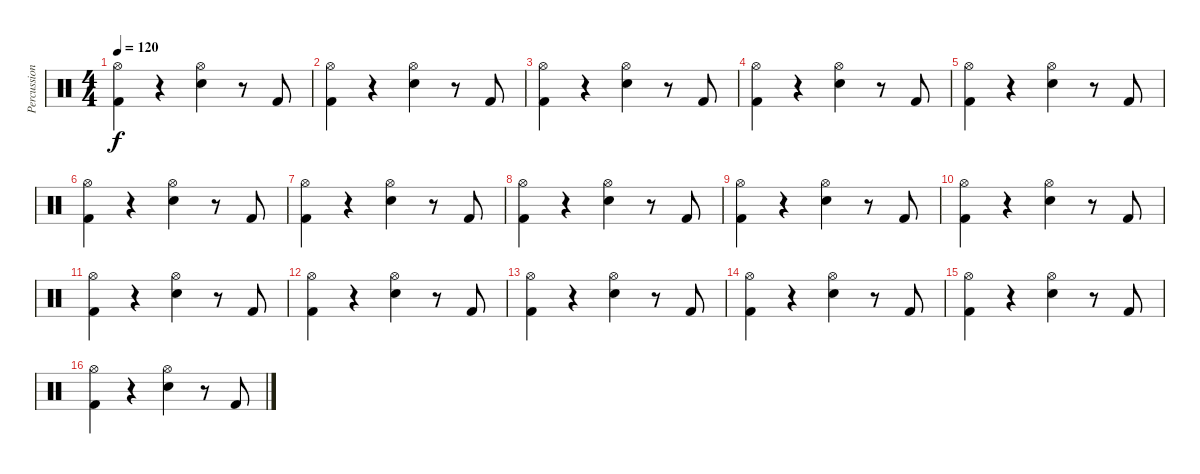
\track ("Percussions" "Percussion") {instrument percussion}
\staff {score}
\articulation defaults
\ts (4 4)
\tempo 120
\clef neutral
\ks c
("Hi-Hat (open)" "Kick (hit) 2").4{dy f} r.4 ("Hi-Hat (open)" "Snare (hit) 2").4 r.8 "Kick (hit) 2".8 |
("Hi-Hat (open)" "Kick (hit) 2").4 r.4 ("Hi-Hat (open)" "Snare (hit) 2").4 r.8 "Kick (hit) 2".8 |
("Hi-Hat (open)" "Kick (hit) 2").4 r.4 ("Hi-Hat (open)" "Snare (hit) 2").4 r.8 "Kick (hit) 2".8 |
("Hi-Hat (open)" "Kick (hit) 2").4 r.4 ("Hi-Hat (open)" "Snare (hit) 2").4 r.8 "Kick (hit) 2".8 |
("Hi-Hat (open)" "Kick (hit) 2").4 r.4 ("Hi-Hat (open)" "Snare (hit) 2").4 r.8 "Kick (hit) 2".8 |
("Hi-Hat (open)" "Kick (hit) 2").4 r.4 ("Hi-Hat (open)" "Snare (hit) 2").4 r.8 "Kick (hit) 2".8 |
("Hi-Hat (open)" "Kick (hit) 2").4 r.4 ("Hi-Hat (open)" "Snare (hit) 2").4 r.8 "Kick (hit) 2".8 |
("Hi-Hat (open)" "Kick (hit) 2").4 r.4 ("Hi-Hat (open)" "Snare (hit) 2").4 r.8 "Kick (hit) 2".8 |
("Hi-Hat (open)" "Kick (hit) 2").4 r.4 ("Hi-Hat (open)" "Snare (hit) 2").4 r.8 "Kick (hit) 2".8 |
("Hi-Hat (open)" "Kick (hit) 2").4 r.4 ("Hi-Hat (open)" "Snare (hit) 2").4 r.8 "Kick (hit) 2".8 |
("Hi-Hat (open)" "Kick (hit) 2").4 r.4 ("Hi-Hat (open)" "Snare (hit) 2").4 r.8 "Kick (hit) 2".8 |
("Hi-Hat (open)" "Kick (hit) 2").4 r.4 ("Hi-Hat (open)" "Snare (hit) 2").4 r.8 "Kick (hit) 2".8 |
("Hi-Hat (open)" "Kick (hit) 2").4 r.4 ("Hi-Hat (open)" "Snare (hit) 2").4 r.8 "Kick (hit) 2".8 |
("Hi-Hat (open)" "Kick (hit) 2").4 r.4 ("Hi-Hat (open)" "Snare (hit) 2").4 r.8 "Kick (hit) 2".8 |
("Hi-Hat (open)" "Kick (hit) 2").4 r.4 ("Hi-Hat (open)" "Snare (hit) 2").4 r.8 "Kick (hit) 2".8 |
("Hi-Hat (open)" "Kick (hit) 2").4 r.4 ("Hi-Hat (open)" "Snare (hit) 2").4 r.8 "Kick (hit) 2".8
